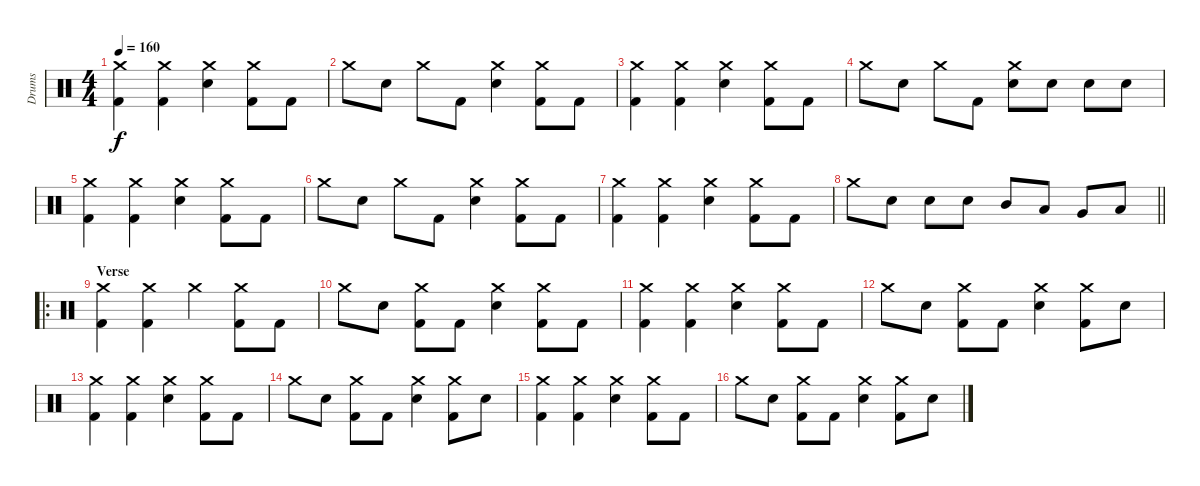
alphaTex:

\track ("Drums" "Drums") {instrument percussion}
\staff {score}
\articulation defaults
\ts (4 4)
\tempo 160
\clef neutral
\ks c
("Crash medium (hit)" "Kick (hit) 2").4{dy f} ("Crash medium (hit)" "Kick (hit) 2").4 ("Crash medium (hit)" "Snare (hit) 2").4 ("Crash medium (hit)" "Kick (hit) 2").8 "Kick (hit) 2".8 |
"Crash medium (hit)".8 "Snare (hit) 2".8 "Crash medium (hit)".8 "Kick (hit) 2".8 ("Crash medium (hit)" "Snare (hit) 2").4 ("Crash medium (hit)" "Kick (hit) 2").8 "Kick (hit) 2".8 |
("Crash medium (hit)" "Kick (hit) 2").4 ("Crash medium (hit)" "Kick (hit) 2").4 ("Crash medium (hit)" "Snare (hit) 2").4 ("Crash medium (hit)" "Kick (hit) 2").8 "Kick (hit) 2".8 |
"Crash medium (hit)".8 "Snare (hit) 2".8 "Crash medium (hit)".8 "Kick (hit) 2".8 ("Crash medium (hit)" "Snare (hit) 2").8 "Snare (hit) 2".8 "Snare (hit) 2".8 "Snare (hit) 2".8 |
("Crash medium (hit)" "Kick (hit) 2").4 ("Crash medium (hit)" "Kick (hit) 2").4 ("Crash medium (hit)" "Snare (hit) 2").4 ("Crash medium (hit)" "Kick (hit) 2").8 "Kick (hit) 2".8 |
"Crash medium (hit)".8 "Snare (hit) 2".8 "Crash medium (hit)".8 "Kick (hit) 2".8 ("Crash medium (hit)" "Snare (hit) 2").4 ("Crash medium (hit)" "Kick (hit) 2").8 "Kick (hit) 2".8 |
("Crash medium (hit)" "Kick (hit) 2").4 ("Crash medium (hit)" "Kick (hit) 2").4 ("Crash medium (hit)" "Snare (hit) 2").4 ("Crash medium (hit)" "Kick (hit) 2").8 "Kick (hit) 2".8 |
\barLineRight lightlight "Crash medium (hit)".8 "Snare (hit) 2".8 "Snare (hit) 2".8 "Snare (hit) 2".8 "Mid Tom (hit)".8 "Low Tom (hit)".8 "Very Low Tom (hit)".8 "Low Floor Tom (hit)".8
|
\ro
\section ("" "Verse")
("Crash medium (hit)" "Kick (hit) 2").4 ("Crash medium (hit)" "Kick (hit) 2").4 "Crash medium (hit)".4 ("Crash medium (hit)" "Kick (hit) 2").8 "Kick (hit) 2".8 |
"Crash medium (hit)".8 "Snare (hit) 2".8 ("Crash medium (hit)" "Kick (hit) 2").8 "Kick (hit) 2".8 ("Crash medium (hit)" "Snare (hit) 2").4 ("Crash medium (hit)" "Kick (hit) 2").8 "Kick (hit) 2".8 |
("Crash medium (hit)" "Kick (hit) 2").4 ("Crash medium (hit)" "Kick (hit) 2").4 ("Crash medium (hit)" "Snare (hit) 2").4 ("Crash medium (hit)" "Kick (hit) 2").8 "Kick (hit) 2".8 |
"Crash medium (hit)".8 "Snare (hit) 2".8 ("Crash medium (hit)" "Kick (hit) 2").8 "Kick (hit) 2".8 ("Crash medium (hit)" "Snare (hit) 2").4 ("Crash medium (hit)" "Kick (hit) 2").8 "Snare (hit) 2".8 |
("Crash medium (hit)" "Kick (hit) 2").4 ("Crash medium (hit)" "Kick (hit) 2").4 ("Crash medium (hit)" "Snare (hit) 2").4 ("Crash medium (hit)" "Kick (hit) 2").8 "Kick (hit) 2".8 |
"Crash medium (hit)".8 "Snare (hit) 2".8 ("Crash medium (hit)" "Kick (hit) 2").8 "Kick (hit) 2".8 ("Crash medium (hit)" "Snare (hit) 2").4 ("Crash medium (hit)" "Kick (hit) 2").8 "Snare (hit) 2".8 |
("Crash medium (hit)" "Kick (hit) 2").4 ("Crash medium (hit)" "Kick (hit) 2").4 ("Crash medium (hit)" "Snare (hit) 2").4 ("Crash medium (hit)" "Kick (hit) 2").8 "Kick (hit) 2".8 |
"Crash medium (hit)".8 "Snare (hit) 2".8 ("Crash medium (hit)" "Kick (hit) 2").8 "Kick (hit) 2".8 ("Crash medium (hit)" "Snare (hit) 2").4 ("Crash medium (hit)" "Kick (hit) 2").8 "Snare (hit) 2".8
